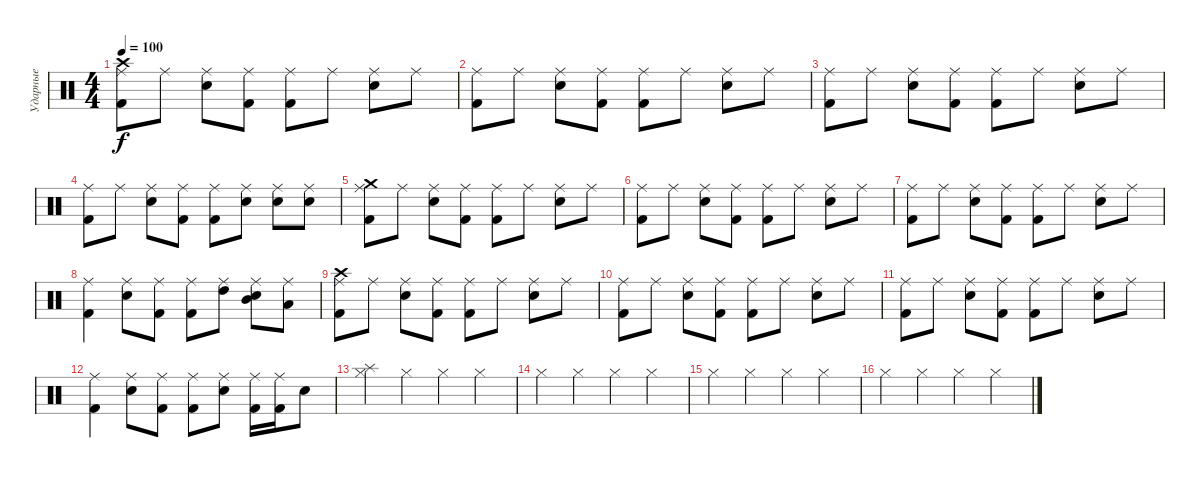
\track ("Ударные" "Ударные") {instrument percussion}
\staff {score}
\articulation defaults
\ts (4 4)
\tempo 100
\clef neutral
\ks c
("Ride (middle)" "Crash high (hit)" "Kick (hit) 2").8{dy f} "Ride (middle)".8 ("Ride (middle)" "Snare (hit) 2").8 ("Ride (middle)" "Kick (hit) 2").8 ("Ride (middle)" "Kick (hit) 2").8 "Ride (middle)".8 ("Ride (middle)" "Snare (hit) 2").8 "Ride (middle)".8 |
("Ride (middle)" "Kick (hit) 2").8 "Ride (middle)".8 ("Ride (middle)" "Snare (hit) 2").8 ("Ride (middle)" "Kick (hit) 2").8 ("Ride (middle)" "Kick (hit) 2").8 "Ride (middle)".8 ("Ride (middle)" "Snare (hit) 2").8 "Ride (middle)".8 |
("Ride (middle)" "Kick (hit) 2").8 "Ride (middle)".8 ("Ride (middle)" "Snare (hit) 2").8 ("Ride (middle)" "Kick (hit) 2").8 ("Ride (middle)" "Kick (hit) 2").8 "Ride (middle)".8 ("Ride (middle)" "Snare (hit) 2").8 "Ride (middle)".8 |
("Ride (middle)" "Kick (hit) 2").8 "Ride (middle)".8 ("Ride (middle)" "Snare (hit) 2").8 ("Ride (middle)" "Kick (hit) 2").8 ("Ride (middle)" "Kick (hit) 2").8 ("Ride (middle)" "Snare (hit) 2").8 ("Ride (middle)" "Snare (hit) 2").8 ("Ride (middle)" "Snare (hit) 2").8 |
("Ride (middle)" "Crash medium (hit)" "Kick (hit) 2").8 "Ride (middle)".8 ("Ride (middle)" "Snare (hit) 2").8 ("Ride (middle)" "Kick (hit) 2").8 ("Ride (middle)" "Kick (hit) 2").8 "Ride (middle)".8 ("Ride (middle)" "Snare (hit) 2").8 "Ride (middle)".8 |
("Ride (middle)" "Kick (hit) 2").8 "Ride (middle)".8 ("Ride (middle)" "Snare (hit) 2").8 ("Ride (middle)" "Kick (hit) 2").8 ("Ride (middle)" "Kick (hit) 2").8 "Ride (middle)".8 ("Ride (middle)" "Snare (hit) 2").8 "Ride (middle)".8 |
("Ride (middle)" "Kick (hit) 2").8 "Ride (middle)".8 ("Ride (middle)" "Snare (hit) 2").8 ("Ride (middle)" "Kick (hit) 2").8 ("Ride (middle)" "Kick (hit) 2").8 "Ride (middle)".8 ("Ride (middle)" "Snare (hit) 2").8 "Ride (middle)".8 |
("Kick (hit) 2" "Ride (middle)").4 ("Snare (hit) 2" "Ride (middle)").8 ("Kick (hit) 2" "Ride (middle)").8 ("Kick (hit) 2" "Ride (middle)").8 ("High Tom (hit)" "Ride (middle)").8 ("Mid Tom (hit)" "Snare (hit) 2" "Ride (middle)").8 ("Low Tom (hit)" "Ride (middle)").8 |
("Ride (middle)" "Crash high (hit)" "Kick (hit) 2").8 "Ride (middle)".8 ("Ride (middle)" "Snare (hit) 2").8 ("Ride (middle)" "Kick (hit) 2").8 ("Ride (middle)" "Kick (hit) 2").8 "Ride (middle)".8 ("Ride (middle)" "Snare (hit) 2").8 "Ride (middle)".8 |
("Ride (middle)" "Kick (hit) 2").8 "Ride (middle)".8 ("Ride (middle)" "Snare (hit) 2").8 ("Ride (middle)" "Kick (hit) 2").8 ("Ride (middle)" "Kick (hit) 2").8 "Ride (middle)".8 ("Ride (middle)" "Snare (hit) 2").8 "Ride (middle)".8 |
("Ride (middle)" "Kick (hit) 2").8 "Ride (middle)".8 ("Ride (middle)" "Snare (hit) 2").8 ("Ride (middle)" "Kick (hit) 2").8 ("Ride (middle)" "Kick (hit) 2").8 "Ride (middle)".8 ("Ride (middle)" "Snare (hit) 2").8 "Ride (middle)".8 |
("Kick (hit) 2" "Ride (middle)").4 ("Snare (hit) 2" "Ride (middle)").8 ("Kick (hit) 2" "Ride (middle)").8 ("Kick (hit) 2" "Ride (middle)").8 ("Snare (hit) 2" "Ride (middle)").8 ("Kick (hit) 2" "Ride (middle)").16 ("Kick (hit) 2" "Ride (middle)").16 "Snare (hit) 2".8 |
("Hi-Hat (closed)" "Splash (hit)").4 "Hi-Hat (closed)".4 "Hi-Hat (closed)".4 "Hi-Hat (closed)".4 |
"Hi-Hat (closed)".4 "Hi-Hat (closed)".4 "Hi-Hat (closed)".4 "Hi-Hat (closed)".4 |
"Hi-Hat (closed)".4 "Hi-Hat (closed)".4 "Hi-Hat (closed)".4 "Hi-Hat (closed)".4 |
"Hi-Hat (closed)".4 "Hi-Hat (closed)".4 "Hi-Hat (closed)".4 "Hi-Hat (closed)".4
